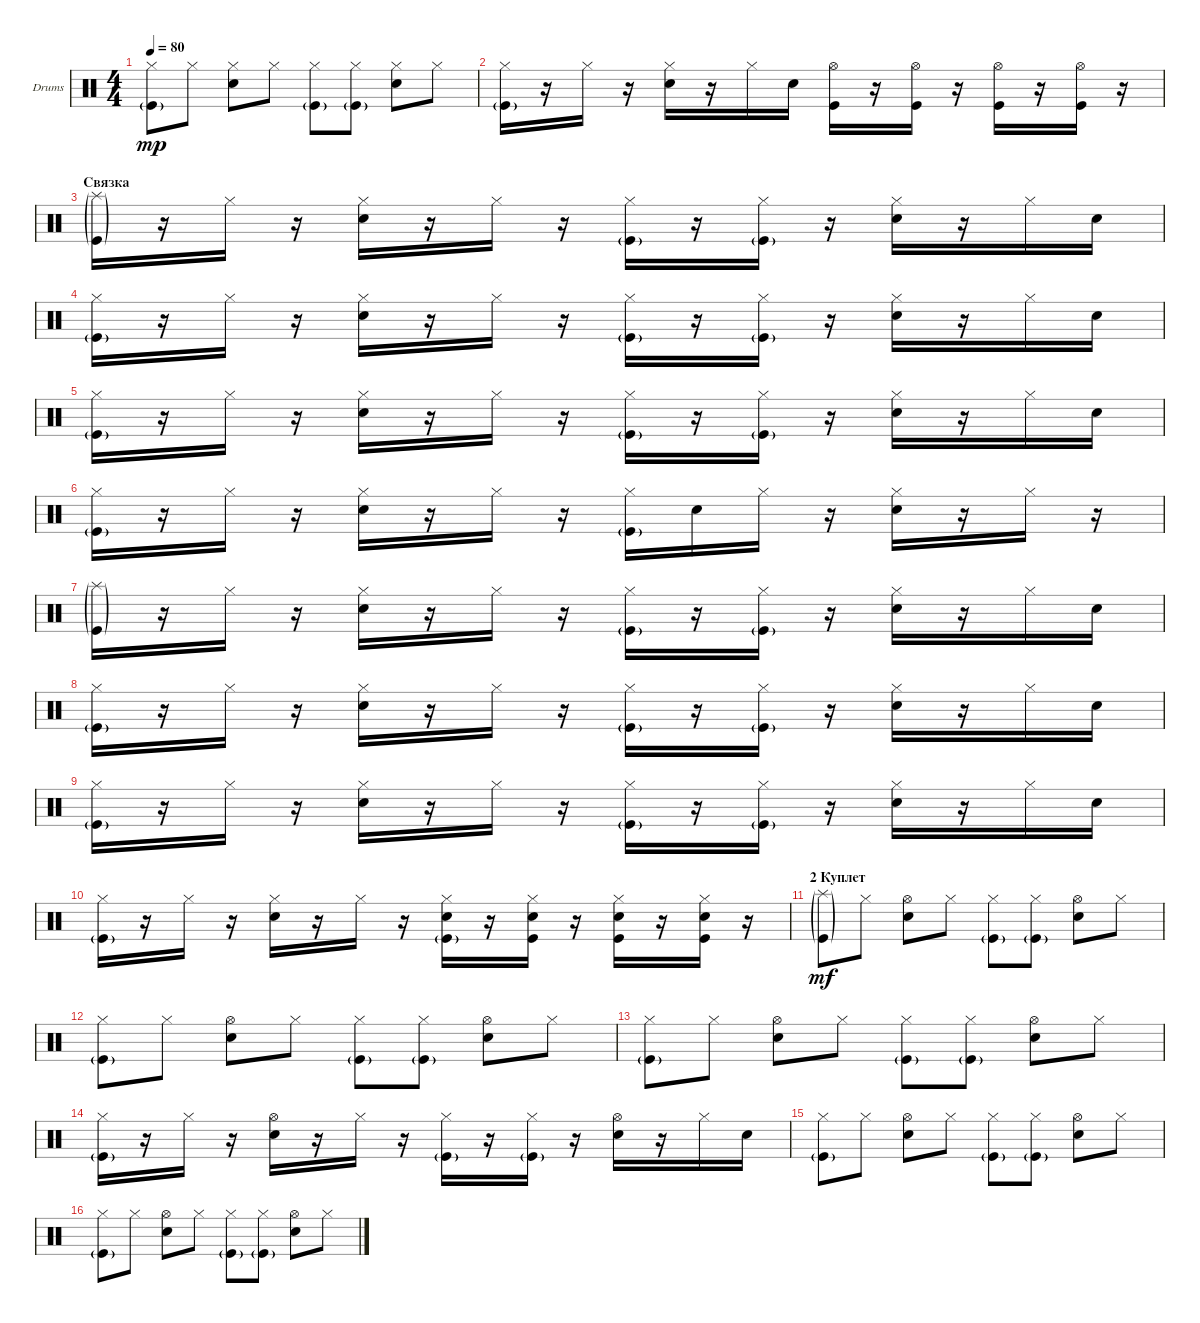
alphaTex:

\defaultSystemsLayout 4
\bracketExtendMode groupsimilarinstruments
\firstSystemTrackNameOrientation horizontal
\otherSystemsTrackNameOrientation horizontal
\track ("Drumkit" "Drums") {instrument percussion}
\staff {score}
\articulation defaults
\ts (4 4)
\tempo 80
\clef neutral
\ks c
("Hi-Hat (closed)" "Kick (hit)"{g}).8{dy mp} "Hi-Hat (closed)".8 ("Hi-Hat (closed)" "Snare (hit) 2").8 "Hi-Hat (closed)".8 ("Hi-Hat (closed)" "Kick (hit)"{g}).8 ("Hi-Hat (closed)" "Kick (hit)"{g}).8 ("Hi-Hat (closed)" "Snare (hit) 2").8 "Hi-Hat (closed)".8 |
("Hi-Hat (closed)" "Kick (hit)"{g}).16 r.16 "Hi-Hat (closed)".16 r.16 ("Hi-Hat (closed)" "Snare (hit) 2").16 r.16 "Hi-Hat (closed)".16 "Snare (hit) 2".16 ("Kick (hit)" "Hi-Hat (open)").16 r.16 ("Kick (hit)" "Hi-Hat (open)").16 r.16 ("Kick (hit)" "Hi-Hat (open)").16 r.16 ("Kick (hit)" "Hi-Hat (open)").16 r.16 |
\section ("" "Связка")
("Kick (hit)"{g} "Splash (hit)"{g}).16 r.16 "Hi-Hat (closed)".16 r.16 ("Hi-Hat (closed)" "Snare (hit) 2").16 r.16 "Hi-Hat (closed)".16 r.16 ("Kick (hit)"{g} "Hi-Hat (closed)").16 r.16 ("Kick (hit)"{g} "Hi-Hat (closed)").16 r.16 ("Hi-Hat (closed)" "Snare (hit) 2").16 r.16 "Hi-Hat (closed)".16 "Snare (hit) 2".16 |
("Kick (hit)"{g} "Hi-Hat (closed)").16 r.16 "Hi-Hat (closed)".16 r.16 ("Hi-Hat (closed)" "Snare (hit) 2").16 r.16 "Hi-Hat (closed)".16 r.16 ("Kick (hit)"{g} "Hi-Hat (closed)").16 r.16 ("Kick (hit)"{g} "Hi-Hat (closed)").16 r.16 ("Hi-Hat (closed)" "Snare (hit) 2").16 r.16 "Hi-Hat (closed)".16 "Snare (hit) 2".16 |
("Kick (hit)"{g} "Hi-Hat (closed)").16 r.16 "Hi-Hat (closed)".16 r.16 ("Hi-Hat (closed)" "Snare (hit) 2").16 r.16 "Hi-Hat (closed)".16 r.16 ("Kick (hit)"{g} "Hi-Hat (closed)").16 r.16 ("Kick (hit)"{g} "Hi-Hat (closed)").16 r.16 ("Hi-Hat (closed)" "Snare (hit) 2").16 r.16 "Hi-Hat (closed)".16 "Snare (hit) 2".16 |
("Kick (hit)"{g} "Hi-Hat (closed)").16 r.16 "Hi-Hat (closed)".16 r.16 ("Hi-Hat (closed)" "Snare (hit) 2").16 r.16 "Hi-Hat (closed)".16 r.16 ("Hi-Hat (closed)" "Kick (hit)"{g}).16 "Snare (hit) 2".16 "Hi-Hat (closed)".16 r.16 ("Hi-Hat (closed)" "Snare (hit) 2").16 r.16 "Hi-Hat (closed)".16 r.16 |
("Kick (hit)"{g} "Splash (hit)"{g}).16 r.16 "Hi-Hat (closed)".16 r.16 ("Hi-Hat (closed)" "Snare (hit) 2").16 r.16 "Hi-Hat (closed)".16 r.16 ("Kick (hit)"{g} "Hi-Hat (closed)").16 r.16 ("Kick (hit)"{g} "Hi-Hat (closed)").16 r.16 ("Hi-Hat (closed)" "Snare (hit) 2").16 r.16 "Hi-Hat (closed)".16 "Snare (hit) 2".16 |
("Kick (hit)"{g} "Hi-Hat (closed)").16 r.16 "Hi-Hat (closed)".16 r.16 ("Hi-Hat (closed)" "Snare (hit) 2").16 r.16 "Hi-Hat (closed)".16 r.16 ("Kick (hit)"{g} "Hi-Hat (closed)").16 r.16 ("Kick (hit)"{g} "Hi-Hat (closed)").16 r.16 ("Hi-Hat (closed)" "Snare (hit) 2").16 r.16 "Hi-Hat (closed)".16 "Snare (hit) 2".16 |
("Kick (hit)"{g} "Hi-Hat (closed)").16 r.16 "Hi-Hat (closed)".16 r.16 ("Hi-Hat (closed)" "Snare (hit) 2").16 r.16 "Hi-Hat (closed)".16 r.16 ("Kick (hit)"{g} "Hi-Hat (closed)").16 r.16 ("Kick (hit)"{g} "Hi-Hat (closed)").16 r.16 ("Hi-Hat (closed)" "Snare (hit) 2").16 r.16 "Hi-Hat (closed)".16 "Snare (hit) 2".16 |
("Kick (hit)"{g} "Hi-Hat (closed)").16 r.16 "Hi-Hat (closed)".16 r.16 ("Hi-Hat (closed)" "Snare (hit) 2").16 r.16 "Hi-Hat (closed)".16 r.16 ("Hi-Hat (closed)" "Kick (hit)"{g} "Snare (hit) 2").16 r.16 ("Hi-Hat (closed)" "Kick (hit)" "Snare (hit) 2").16 r.16 ("Hi-Hat (closed)" "Kick (hit)" "Snare (hit) 2").16 r.16 ("Hi-Hat (closed)" "Kick (hit)" "Snare (hit) 2").16 r.16 |
\section ("" "2 Куплет")
("Kick (hit)"{g} "Splash (hit)"{g}).8{dy mf} "Hi-Hat (closed)".8 ("Hi-Hat (open)" "Snare (hit) 2").8 "Hi-Hat (closed)".8 ("Hi-Hat (closed)" "Kick (hit)"{g}).8 ("Hi-Hat (closed)" "Kick (hit)"{g}).8 ("Hi-Hat (open)" "Snare (hit) 2").8 "Hi-Hat (closed)".8 |
("Kick (hit)"{g} "Hi-Hat (closed)").8 "Hi-Hat (closed)".8 ("Hi-Hat (open)" "Snare (hit) 2").8 "Hi-Hat (closed)".8 ("Hi-Hat (closed)" "Kick (hit)"{g}).8 ("Hi-Hat (closed)" "Kick (hit)"{g}).8 ("Hi-Hat (open)" "Snare (hit) 2").8 "Hi-Hat (closed)".8 |
("Kick (hit)"{g} "Hi-Hat (closed)").8 "Hi-Hat (closed)".8 ("Hi-Hat (open)" "Snare (hit) 2").8 "Hi-Hat (closed)".8 ("Hi-Hat (closed)" "Kick (hit)"{g}).8 ("Hi-Hat (closed)" "Kick (hit)"{g}).8 ("Hi-Hat (open)" "Snare (hit) 2").8 "Hi-Hat (closed)".8 |
("Kick (hit)"{g} "Hi-Hat (closed)").16 r.16 "Hi-Hat (closed)".16 r.16 ("Hi-Hat (open)" "Snare (hit) 2").16 r.16 "Hi-Hat (closed)".16 r.16 ("Kick (hit)"{g} "Hi-Hat (closed)").16 r.16 ("Kick (hit)"{g} "Hi-Hat (closed)").16 r.16 ("Hi-Hat (open)" "Snare (hit) 2").16 r.16 "Hi-Hat (closed)".16 "Snare (hit) 2".16 |
("Kick (hit)"{g} "Hi-Hat (closed)").8 "Hi-Hat (closed)".8 ("Hi-Hat (open)" "Snare (hit) 2").8 "Hi-Hat (closed)".8 ("Hi-Hat (closed)" "Kick (hit)"{g}).8 ("Hi-Hat (closed)" "Kick (hit)"{g}).8 ("Hi-Hat (open)" "Snare (hit) 2").8 "Hi-Hat (closed)".8 |
("Kick (hit)"{g} "Hi-Hat (closed)").8 "Hi-Hat (closed)".8 ("Hi-Hat (open)" "Snare (hit) 2").8 "Hi-Hat (closed)".8 ("Hi-Hat (closed)" "Kick (hit)"{g}).8 ("Hi-Hat (closed)" "Kick (hit)"{g}).8 ("Hi-Hat (open)" "Snare (hit) 2").8 "Hi-Hat (closed)".8
